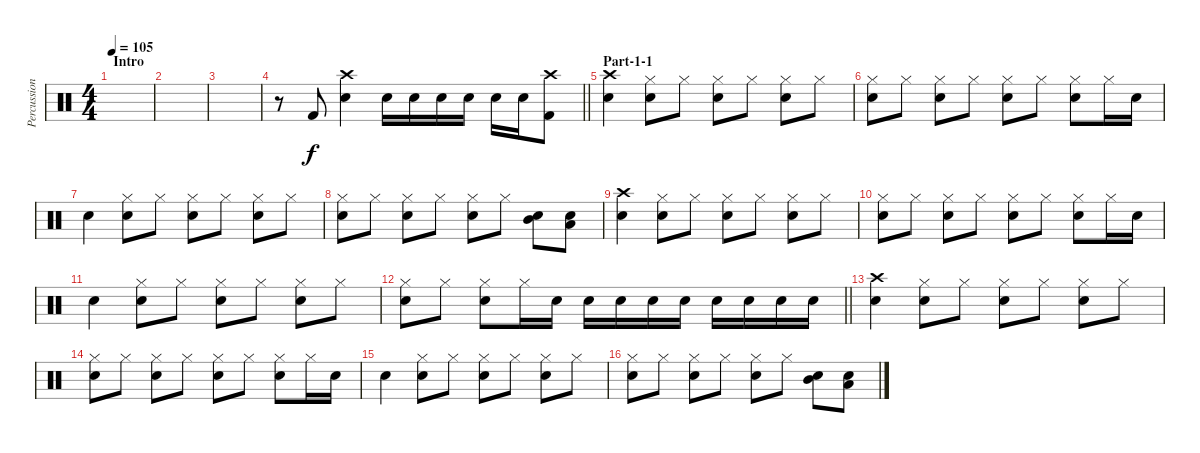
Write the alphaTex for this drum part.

\track ("Percussions" "Percussion") {instrument percussion}
\staff {score}
\articulation defaults
\ts (4 4)
\section ("" "Intro")
\tempo 105
\clef neutral
\ks c
|
|
|
\barLineRight lightlight
r.8 "Kick (hit) 2".8 ("Crash high (hit)" "Snare (hit) 2").4 "Snare (hit) 2".16 "Snare (hit) 2".16 "Snare (hit) 2".16 "Snare (hit) 2".16 "Snare (hit) 2".16 "Snare (hit) 2".16 ("Crash high (hit)" "Kick (hit) 2").8 |
\section ("" "Part-1-1")
("Crash high (hit)" "Snare (hit) 2").4 ("Hi-Hat (closed)" "Snare (hit) 2").8 "Hi-Hat (closed)".8 ("Hi-Hat (closed)" "Snare (hit) 2").8 "Hi-Hat (closed)".8 ("Hi-Hat (closed)" "Snare (hit) 2").8 "Hi-Hat (closed)".8 |
("Hi-Hat (closed)" "Snare (hit) 2").8 "Hi-Hat (closed)".8 ("Hi-Hat (closed)" "Snare (hit) 2").8 "Hi-Hat (closed)".8 ("Hi-Hat (closed)" "Snare (hit) 2").8 "Hi-Hat (closed)".8 ("Hi-Hat (closed)" "Snare (hit) 2").8 "Hi-Hat (closed)".16 "Snare (hit) 2".16 |
"Snare (hit) 2".4 ("Hi-Hat (closed)" "Snare (hit) 2").8 "Hi-Hat (closed)".8 ("Hi-Hat (closed)" "Snare (hit) 2").8 "Hi-Hat (closed)".8 ("Hi-Hat (closed)" "Snare (hit) 2").8 "Hi-Hat (closed)".8 |
("Hi-Hat (closed)" "Snare (hit) 2").8 "Hi-Hat (closed)".8 ("Hi-Hat (closed)" "Snare (hit) 2").8 "Hi-Hat (closed)".8 ("Hi-Hat (closed)" "Snare (hit) 2").8 "Hi-Hat (closed)".8 ("Mid Tom (hit)" "Snare (hit) 2").8 ("Low Tom (hit)" "Snare (hit) 2").8 |
("Crash high (hit)" "Snare (hit) 2").4 ("Hi-Hat (closed)" "Snare (hit) 2").8 "Hi-Hat (closed)".8 ("Hi-Hat (closed)" "Snare (hit) 2").8 "Hi-Hat (closed)".8 ("Hi-Hat (closed)" "Snare (hit) 2").8 "Hi-Hat (closed)".8 |
("Hi-Hat (closed)" "Snare (hit) 2").8 "Hi-Hat (closed)".8 ("Hi-Hat (closed)" "Snare (hit) 2").8 "Hi-Hat (closed)".8 ("Hi-Hat (closed)" "Snare (hit) 2").8 "Hi-Hat (closed)".8 ("Hi-Hat (closed)" "Snare (hit) 2").8 "Hi-Hat (closed)".16 "Snare (hit) 2".16 |
"Snare (hit) 2".4 ("Hi-Hat (closed)" "Snare (hit) 2").8 "Hi-Hat (closed)".8 ("Hi-Hat (closed)" "Snare (hit) 2").8 "Hi-Hat (closed)".8 ("Hi-Hat (closed)" "Snare (hit) 2").8 "Hi-Hat (closed)".8 |
\barLineRight lightlight
("Hi-Hat (closed)" "Snare (hit) 2").8 "Hi-Hat (closed)".8 ("Hi-Hat (closed)" "Snare (hit) 2").8 "Hi-Hat (closed)".16 "Snare (hit) 2".16 "Snare (hit) 2".16 "Snare (hit) 2".16 "Snare (hit) 2".16 "Snare (hit) 2".16 "Snare (hit) 2".16 "Snare (hit) 2".16 "Snare (hit) 2".16 "Snare (hit) 2".16 |
("Crash high (hit)" "Snare (hit) 2").4 ("Hi-Hat (closed)" "Snare (hit) 2").8 "Hi-Hat (closed)".8 ("Hi-Hat (closed)" "Snare (hit) 2").8 "Hi-Hat (closed)".8 ("Hi-Hat (closed)" "Snare (hit) 2").8 "Hi-Hat (closed)".8 |
("Hi-Hat (closed)" "Snare (hit) 2").8 "Hi-Hat (closed)".8 ("Hi-Hat (closed)" "Snare (hit) 2").8 "Hi-Hat (closed)".8 ("Hi-Hat (closed)" "Snare (hit) 2").8 "Hi-Hat (closed)".8 ("Hi-Hat (closed)" "Snare (hit) 2").8 "Hi-Hat (closed)".16 "Snare (hit) 2".16 |
"Snare (hit) 2".4 ("Hi-Hat (closed)" "Snare (hit) 2").8 "Hi-Hat (closed)".8 ("Hi-Hat (closed)" "Snare (hit) 2").8 "Hi-Hat (closed)".8 ("Hi-Hat (closed)" "Snare (hit) 2").8 "Hi-Hat (closed)".8 |
("Hi-Hat (closed)" "Snare (hit) 2").8 "Hi-Hat (closed)".8 ("Hi-Hat (closed)" "Snare (hit) 2").8 "Hi-Hat (closed)".8 ("Hi-Hat (closed)" "Snare (hit) 2").8 "Hi-Hat (closed)".8 ("Mid Tom (hit)" "Snare (hit) 2").8 ("Low Tom (hit)" "Snare (hit) 2").8
